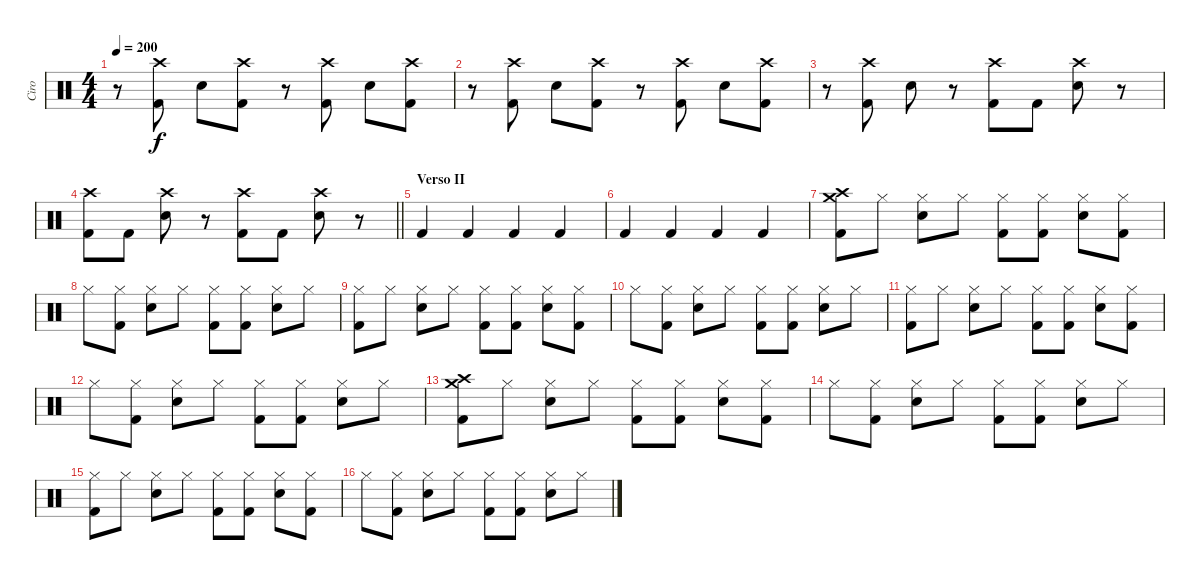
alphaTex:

\track ("Ciro" "Ciro") {instrument percussion}
\staff {score}
\articulation defaults
\ts (4 4)
\tempo 200
\clef neutral
\ks c
r.8{dy f} ("Crash high (hit)" "Kick (hit) 2").8 "Snare (hit) 2".8 ("Crash high (hit)" "Kick (hit) 2").8 r.8 ("Crash high (hit)" "Kick (hit) 2").8 "Snare (hit) 2".8 ("Crash high (hit)" "Kick (hit) 2").8 |
r.8 ("Crash high (hit)" "Kick (hit) 2").8 "Snare (hit) 2".8 ("Crash high (hit)" "Kick (hit) 2").8 r.8 ("Crash high (hit)" "Kick (hit) 2").8 "Snare (hit) 2".8 ("Crash high (hit)" "Kick (hit) 2").8 |
r.8 ("Crash high (hit)" "Kick (hit) 2").8 "Snare (hit) 2".8 r.8 ("Crash high (hit)" "Kick (hit) 2").8 "Kick (hit) 2".8 ("Crash high (hit)" "Snare (hit) 2").8 r.8 |
\barLineRight lightlight
("Crash high (hit)" "Kick (hit) 2").8 "Kick (hit) 2".8 ("Crash high (hit)" "Snare (hit) 2").8 r.8 ("Crash high (hit)" "Kick (hit) 2").8 "Kick (hit) 2".8 ("Crash high (hit)" "Snare (hit) 2").8 r.8 |
\section ("" "Verso II")
"Kick (hit) 2".4 "Kick (hit) 2".4 "Kick (hit) 2".4 "Kick (hit) 2".4 |
"Kick (hit) 2".4 "Kick (hit) 2".4 "Kick (hit) 2".4 "Kick (hit) 2".4 |
("Crash high (hit)" "Crash medium (hit)" "Kick (hit) 2").8 "Hi-Hat (closed)".8 ("Hi-Hat (closed)" "Snare (hit) 2").8 "Hi-Hat (closed)".8 ("Hi-Hat (closed)" "Kick (hit) 2").8 ("Hi-Hat (closed)" "Kick (hit) 2").8 ("Hi-Hat (closed)" "Snare (hit) 2").8 ("Hi-Hat (closed)" "Kick (hit) 2").8 |
"Hi-Hat (closed)".8 ("Hi-Hat (closed)" "Kick (hit) 2").8 ("Hi-Hat (closed)" "Snare (hit) 2").8 "Hi-Hat (closed)".8 ("Hi-Hat (closed)" "Kick (hit) 2").8 ("Hi-Hat (closed)" "Kick (hit) 2").8 ("Hi-Hat (closed)" "Snare (hit) 2").8 "Hi-Hat (closed)".8 |
("Hi-Hat (closed)" "Kick (hit) 2").8 "Hi-Hat (closed)".8 ("Hi-Hat (closed)" "Snare (hit) 2").8 "Hi-Hat (closed)".8 ("Hi-Hat (closed)" "Kick (hit) 2").8 ("Hi-Hat (closed)" "Kick (hit) 2").8 ("Hi-Hat (closed)" "Snare (hit) 2").8 ("Hi-Hat (closed)" "Kick (hit) 2").8 |
"Hi-Hat (closed)".8 ("Hi-Hat (closed)" "Kick (hit) 2").8 ("Hi-Hat (closed)" "Snare (hit) 2").8 "Hi-Hat (closed)".8 ("Hi-Hat (closed)" "Kick (hit) 2").8 ("Hi-Hat (closed)" "Kick (hit) 2").8 ("Hi-Hat (closed)" "Snare (hit) 2").8 "Hi-Hat (closed)".8 |
("Hi-Hat (closed)" "Kick (hit) 2").8 "Hi-Hat (closed)".8 ("Hi-Hat (closed)" "Snare (hit) 2").8 "Hi-Hat (closed)".8 ("Hi-Hat (closed)" "Kick (hit) 2").8 ("Hi-Hat (closed)" "Kick (hit) 2").8 ("Hi-Hat (closed)" "Snare (hit) 2").8 ("Hi-Hat (closed)" "Kick (hit) 2").8 |
"Hi-Hat (closed)".8 ("Hi-Hat (closed)" "Kick (hit) 2").8 ("Hi-Hat (closed)" "Snare (hit) 2").8 "Hi-Hat (closed)".8 ("Hi-Hat (closed)" "Kick (hit) 2").8 ("Hi-Hat (closed)" "Kick (hit) 2").8 ("Hi-Hat (closed)" "Snare (hit) 2").8 "Hi-Hat (closed)".8 |
("Crash high (hit)" "Crash medium (hit)" "Kick (hit) 2").8 "Hi-Hat (closed)".8 ("Hi-Hat (closed)" "Snare (hit) 2").8 "Hi-Hat (closed)".8 ("Hi-Hat (closed)" "Kick (hit) 2").8 ("Hi-Hat (closed)" "Kick (hit) 2").8 ("Hi-Hat (closed)" "Snare (hit) 2").8 ("Hi-Hat (closed)" "Kick (hit) 2").8 |
"Hi-Hat (closed)".8 ("Hi-Hat (closed)" "Kick (hit) 2").8 ("Hi-Hat (closed)" "Snare (hit) 2").8 "Hi-Hat (closed)".8 ("Hi-Hat (closed)" "Kick (hit) 2").8 ("Hi-Hat (closed)" "Kick (hit) 2").8 ("Hi-Hat (closed)" "Snare (hit) 2").8 "Hi-Hat (closed)".8 |
("Hi-Hat (closed)" "Kick (hit) 2").8 "Hi-Hat (closed)".8 ("Hi-Hat (closed)" "Snare (hit) 2").8 "Hi-Hat (closed)".8 ("Hi-Hat (closed)" "Kick (hit) 2").8 ("Hi-Hat (closed)" "Kick (hit) 2").8 ("Hi-Hat (closed)" "Snare (hit) 2").8 ("Hi-Hat (closed)" "Kick (hit) 2").8 |
"Hi-Hat (closed)".8 ("Hi-Hat (closed)" "Kick (hit) 2").8 ("Hi-Hat (closed)" "Snare (hit) 2").8 "Hi-Hat (closed)".8 ("Hi-Hat (closed)" "Kick (hit) 2").8 ("Hi-Hat (closed)" "Kick (hit) 2").8 ("Hi-Hat (closed)" "Snare (hit) 2").8 "Hi-Hat (closed)".8
